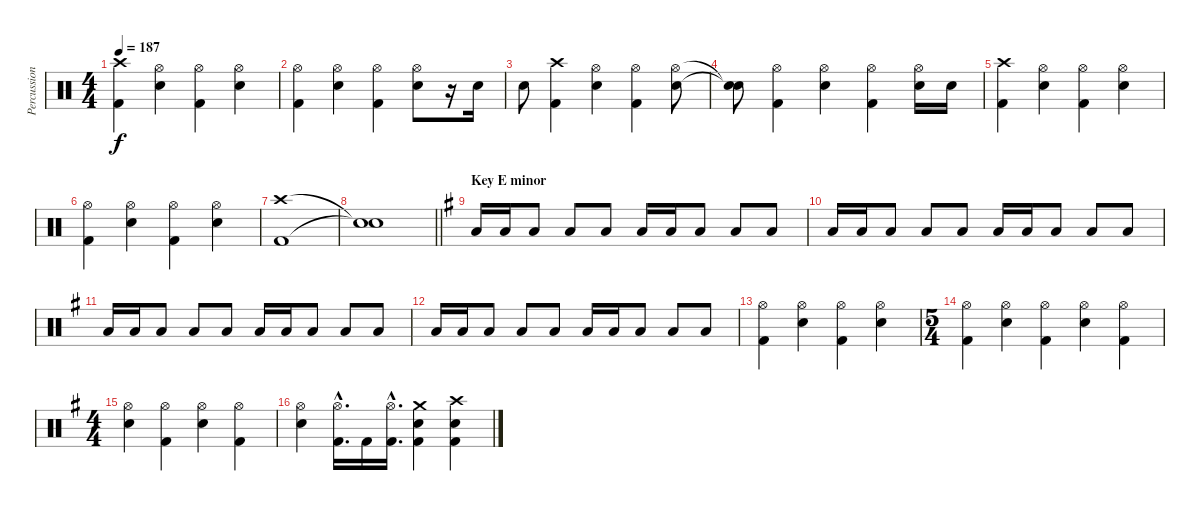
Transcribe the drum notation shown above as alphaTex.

\track ("Percussion" "Percussion") {instrument percussion}
\staff {score}
\articulation defaults
\ts (4 4)
\tempo 187
\clef neutral
\ks aminor
("Crash high (hit)" "Kick (hit) 2").4{dy f} ("Hi-Hat (open)" "Snare (hit) 2").4 ("Hi-Hat (open)" "Kick (hit) 2").4 ("Hi-Hat (open)" "Snare (hit) 2").4 |
("Hi-Hat (open)" "Kick (hit) 2").4 ("Hi-Hat (open)" "Snare (hit) 2").4 ("Hi-Hat (open)" "Kick (hit) 2").4 ("Hi-Hat (open)" "Snare (hit) 2").8 r.16 "Snare (hit) 2".16 |
"Snare (hit) 2".8 ("Crash high (hit)" "Kick (hit) 2").4 ("Hi-Hat (open)" "Snare (hit) 2").4 ("Hi-Hat (open)" "Kick (hit) 2").4 ("Hi-Hat (open)" "Snare (hit) 2").8 |
("Snare (hit)"{t} "Snare (hit)"{t}).8 ("Hi-Hat (open)" "Kick (hit) 2").4 ("Hi-Hat (open)" "Snare (hit) 2").4 ("Hi-Hat (open)" "Kick (hit) 2").4 ("Hi-Hat (open)" "Snare (hit) 2").16 "Snare (hit) 2".16 |
("Crash high (hit)" "Kick (hit) 2").4 ("Hi-Hat (open)" "Snare (hit) 2").4 ("Hi-Hat (open)" "Kick (hit) 2").4 ("Hi-Hat (open)" "Snare (hit) 2").4 |
("Hi-Hat (open)" "Kick (hit) 2").4 ("Hi-Hat (open)" "Snare (hit) 2").4 ("Hi-Hat (open)" "Kick (hit) 2").4 ("Hi-Hat (open)" "Snare (hit) 2").4 |
("Crash high (hit)" "Kick (hit) 2").1 |
\barLineRight lightlight
("Snare (hit)"{t} "Snare (hit)"{t}).1 |
\section ("" "Key E minor")
\ks eminor "Low Floor Tom (hit)".16 "Low Floor Tom (hit)".16 "Low Floor Tom (hit)".8 "Low Floor Tom (hit)".8 "Low Floor Tom (hit)".8 "Low Floor Tom (hit)".16 "Low Floor Tom (hit)".16 "Low Floor Tom (hit)".8 "Low Floor Tom (hit)".8 "Low Floor Tom (hit)".8
|
"Low Floor Tom (hit)".16 "Low Floor Tom (hit)".16 "Low Floor Tom (hit)".8 "Low Floor Tom (hit)".8 "Low Floor Tom (hit)".8 "Low Floor Tom (hit)".16 "Low Floor Tom (hit)".16 "Low Floor Tom (hit)".8 "Low Floor Tom (hit)".8 "Low Floor Tom (hit)".8 |
"Low Floor Tom (hit)".16 "Low Floor Tom (hit)".16 "Low Floor Tom (hit)".8 "Low Floor Tom (hit)".8 "Low Floor Tom (hit)".8 "Low Floor Tom (hit)".16 "Low Floor Tom (hit)".16 "Low Floor Tom (hit)".8 "Low Floor Tom (hit)".8 "Low Floor Tom (hit)".8 |
"Low Floor Tom (hit)".16 "Low Floor Tom (hit)".16 "Low Floor Tom (hit)".8 "Low Floor Tom (hit)".8 "Low Floor Tom (hit)".8 "Low Floor Tom (hit)".16 "Low Floor Tom (hit)".16 "Low Floor Tom (hit)".8 "Low Floor Tom (hit)".8 "Low Floor Tom (hit)".8 |
("Hi-Hat (open)" "Kick (hit) 2").4 ("Hi-Hat (open)" "Snare (hit) 2").4 ("Hi-Hat (open)" "Kick (hit) 2").4 ("Hi-Hat (open)" "Snare (hit) 2").4 |
\ts (5 4)
("Hi-Hat (open)" "Kick (hit) 2").4 ("Hi-Hat (open)" "Snare (hit) 2").4 ("Hi-Hat (open)" "Kick (hit) 2").4 ("Hi-Hat (open)" "Snare (hit) 2").4 ("Hi-Hat (open)" "Kick (hit) 2").4 |
\ts (4 4)
("Hi-Hat (open)" "Snare (hit) 2").4 ("Hi-Hat (open)" "Kick (hit) 2").4 ("Hi-Hat (open)" "Snare (hit) 2").4 ("Hi-Hat (open)" "Kick (hit) 2").4 |
("Hi-Hat (open)" "Snare (hit) 2").4 ("Hi-Hat (open)"{hac} "Kick (hit) 2"{hac}).16{d} "Kick (hit) 2".16 ("Hi-Hat (open)"{hac} "Kick (hit) 2"{hac}).16{d} ("Crash medium (hit)" "Snare (hit) 2" "Kick (hit) 2").4 ("Crash high (hit)" "Snare (hit) 2" "Kick (hit) 2").4
